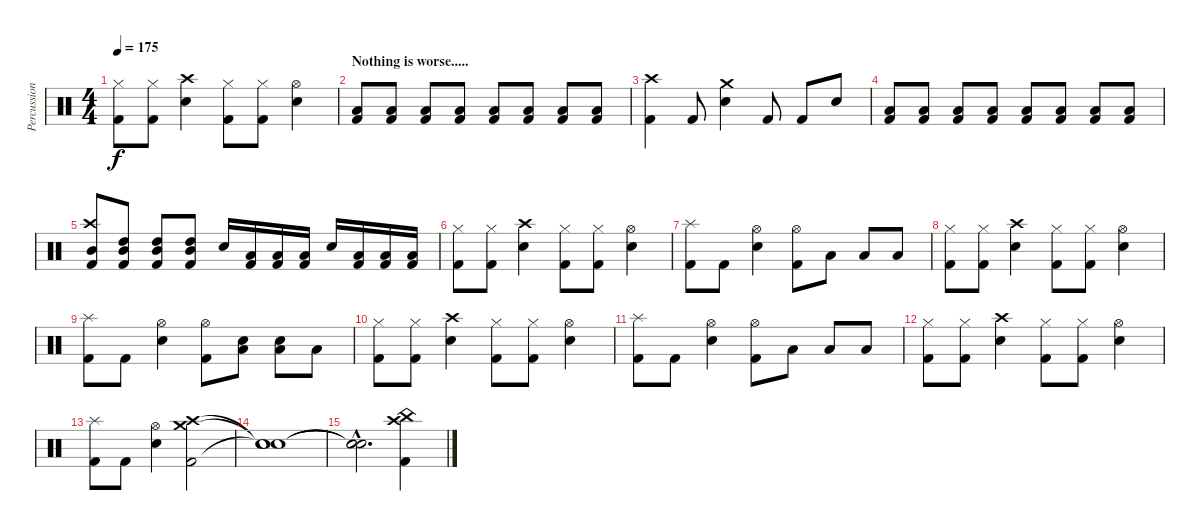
\track ("Percussion" "Percussion") {instrument percussion}
\staff {score}
\articulation defaults
\ts (4 4)
\tempo 175
\clef neutral
\ks c
("Hi-Hat (closed)" "Kick (hit) 2").8{dy f} ("Hi-Hat (closed)" "Kick (hit) 2").8 ("Crash high (hit)" "Snare (hit) 2").4 ("Hi-Hat (closed)" "Kick (hit) 2").8 ("Hi-Hat (closed)" "Kick (hit) 2").8 ("Hi-Hat (open)" "Snare (hit) 2").4 |
\section ("" "Nothing is worse.....")
("Low Tom (hit)" "Kick (hit) 2").8 ("Low Tom (hit)" "Kick (hit) 2").8 ("Low Tom (hit)" "Kick (hit) 2").8 ("Low Tom (hit)" "Kick (hit) 2").8 ("Low Tom (hit)" "Kick (hit) 2").8 ("Low Tom (hit)" "Kick (hit) 2").8 ("Low Tom (hit)" "Kick (hit) 2").8 ("Low Tom (hit)" "Kick (hit) 2").8 |
("Crash high (hit)" "Kick (hit) 2").4 "Kick (hit) 2".8 ("Crash medium (hit)" "Snare (hit) 2").4 "Kick (hit) 2".8 "Kick (hit) 2".8 "Snare (hit) 2".8 |
("Low Tom (hit)" "Kick (hit) 2").8 ("Low Tom (hit)" "Kick (hit) 2").8 ("Low Tom (hit)" "Kick (hit) 2").8 ("Low Tom (hit)" "Kick (hit) 2").8 ("Low Tom (hit)" "Kick (hit) 2").8 ("Low Tom (hit)" "Kick (hit) 2").8 ("Low Tom (hit)" "Kick (hit) 2").8 ("Low Tom (hit)" "Kick (hit) 2").8 |
("Crash high (hit)" "Mid Tom (hit)" "Kick (hit) 2").8 ("High Tom (hit)" "Mid Tom (hit)" "Kick (hit) 2").8 ("High Tom (hit)" "Mid Tom (hit)" "Kick (hit) 2").8 ("High Tom (hit)" "Mid Tom (hit)" "Kick (hit) 2").8 "Snare (hit) 2".16 ("Low Tom (hit)" "Kick (hit) 2").16 ("Low Tom (hit)" "Kick (hit) 2").16 ("Low Tom (hit)" "Kick (hit) 2").16 "Snare (hit) 2".16 ("Low Tom (hit)" "Kick (hit) 2").16 ("Low Tom (hit)" "Kick (hit) 2").16 ("Low Tom (hit)" "Kick (hit) 2").16 |
("Hi-Hat (closed)" "Kick (hit) 2").8 ("Hi-Hat (closed)" "Kick (hit) 2").8 ("Crash high (hit)" "Snare (hit) 2").4 ("Hi-Hat (closed)" "Kick (hit) 2").8 ("Hi-Hat (closed)" "Kick (hit) 2").8 ("Hi-Hat (open)" "Snare (hit) 2").4 |
("Splash (hit)" "Kick (hit) 2").8 "Kick (hit) 2".8 ("Hi-Hat (open)" "Snare (hit) 2").4 ("Hi-Hat (open)" "Kick (hit) 2").8 "Low Tom (hit)".8 "Low Tom (hit)".8 "Low Tom (hit)".8 |
("Hi-Hat (closed)" "Kick (hit) 2").8 ("Hi-Hat (closed)" "Kick (hit) 2").8 ("Crash high (hit)" "Snare (hit) 2").4 ("Hi-Hat (closed)" "Kick (hit) 2").8 ("Hi-Hat (closed)" "Kick (hit) 2").8 ("Hi-Hat (open)" "Snare (hit) 2").4 |
("Splash (hit)" "Kick (hit) 2").8 "Kick (hit) 2".8 ("Hi-Hat (open)" "Snare (hit) 2").4 ("Hi-Hat (open)" "Kick (hit) 2").8 ("Low Tom (hit)" "Snare (hit) 2").8 ("Low Tom (hit)" "Snare (hit) 2").8 "Low Tom (hit)".8 |
("Hi-Hat (closed)" "Kick (hit) 2").8 ("Hi-Hat (closed)" "Kick (hit) 2").8 ("Crash high (hit)" "Snare (hit) 2").4 ("Hi-Hat (closed)" "Kick (hit) 2").8 ("Hi-Hat (closed)" "Kick (hit) 2").8 ("Hi-Hat (open)" "Snare (hit) 2").4 |
("Splash (hit)" "Kick (hit) 2").8 "Kick (hit) 2".8 ("Hi-Hat (open)" "Snare (hit) 2").4 ("Hi-Hat (open)" "Kick (hit) 2").8 "Low Tom (hit)".8 "Low Tom (hit)".8 "Low Tom (hit)".8 |
("Hi-Hat (closed)" "Kick (hit) 2").8 ("Hi-Hat (closed)" "Kick (hit) 2").8 ("Crash high (hit)" "Snare (hit) 2").4 ("Hi-Hat (closed)" "Kick (hit) 2").8 ("Hi-Hat (closed)" "Kick (hit) 2").8 ("Hi-Hat (open)" "Snare (hit) 2").4 |
("Splash (hit)" "Kick (hit) 2").8 "Kick (hit) 2".8 ("Hi-Hat (open)" "Snare (hit) 2").4 ("Crash high (hit)" "Crash medium (hit)" "Kick (hit) 2").2 |
("Snare (hit)"{t} "Snare (hit)"{t} "Snare (hit)"{t}).1 |
("Snare (hit)"{hac t} "Snare (hit)"{hac t} "Snare (hit)"{hac t}).2{d} ("Crash high (hit)" "China (hit)" "Kick (hit) 2").4
